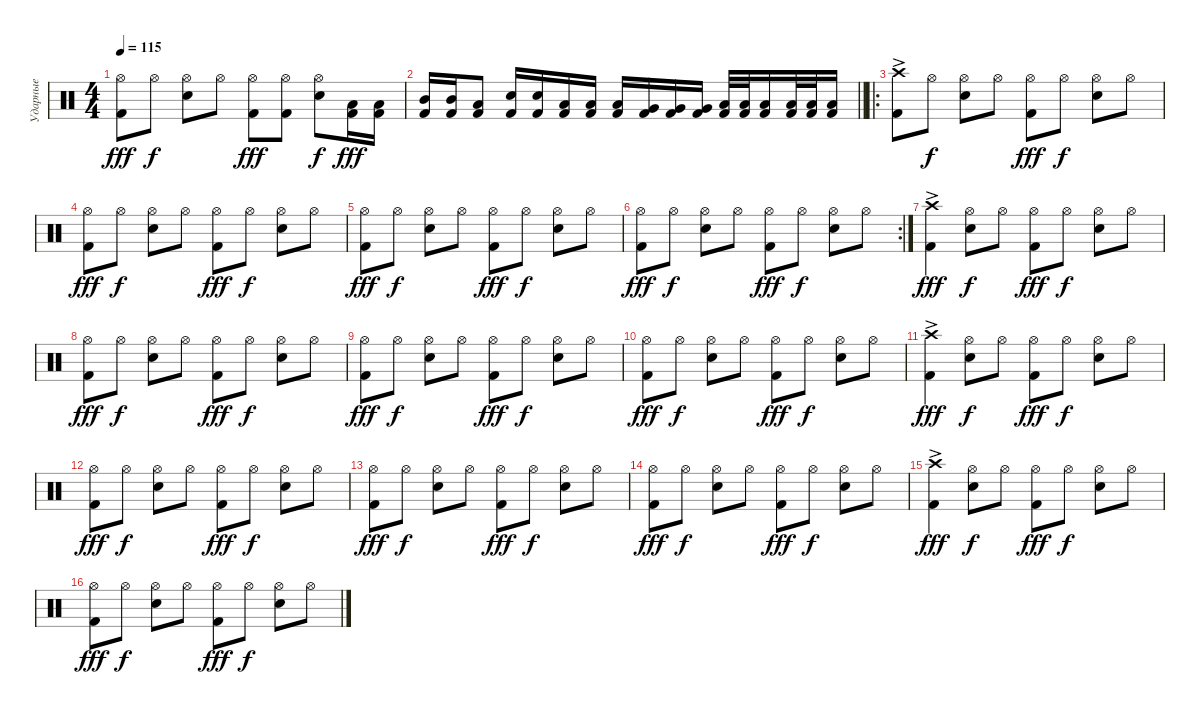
\track ("Ударные" "Ударные") {instrument percussion}
\staff {score}
\articulation defaults
\ts (4 4)
\tempo 115
\clef neutral
\ks c
("Kick (hit) 2" "Hi-Hat (open)").8{dy fff} "Hi-Hat (open)".8{dy f} ("Snare (hit) 2" "Hi-Hat (open)").8 "Hi-Hat (open)".8 ("Kick (hit) 2" "Hi-Hat (open)").8{dy fff} ("Kick (hit) 2" "Hi-Hat (open)").8 ("Snare (hit) 2" "Hi-Hat (open)").8{dy f} ("Kick (hit) 2" "Low Tom (hit)").16{dy fff} ("Kick (hit) 2" "Low Tom (hit)").16 |
\barLineRight lightlight
("Kick (hit) 2" "Mid Tom (hit)").16 ("Kick (hit) 2" "Mid Tom (hit)").16 ("Kick (hit) 2" "Low Tom (hit)").8 ("Kick (hit) 2" "Snare (hit) 2").16 ("Kick (hit) 2" "Snare (hit) 2").16 ("Kick (hit) 2" "Low Tom (hit)").16 ("Kick (hit) 2" "Low Tom (hit)").16 ("Kick (hit) 2" "Low Tom (hit)").16 ("Kick (hit) 2" "Very Low Tom (hit)").16 ("Kick (hit) 2" "Very Low Tom (hit)").16 ("Kick (hit) 2" "Very Low Tom (hit)").16 ("Kick (hit) 2" "Low Floor Tom (hit)").32 ("Kick (hit) 2" "Low Floor Tom (hit)").32 ("Kick (hit) 2" "Low Floor Tom (hit)").16 ("Kick (hit) 2" "Low Floor Tom (hit)").32 ("Kick (hit) 2" "Low Floor Tom (hit)").32 ("Kick (hit) 2" "Low Floor Tom (hit)").16 |
\ro
("Kick (hit) 2" "Crash high (hit)"{ac}).8 "Hi-Hat (open)".8{dy f} ("Snare (hit) 2" "Hi-Hat (open)").8 "Hi-Hat (open)".8 ("Kick (hit) 2" "Hi-Hat (open)").8{dy fff} "Hi-Hat (open)".8{dy f} ("Snare (hit) 2" "Hi-Hat (open)").8 "Hi-Hat (open)".8 |
("Kick (hit) 2" "Hi-Hat (open)").8{dy fff} "Hi-Hat (open)".8{dy f} ("Snare (hit) 2" "Hi-Hat (open)").8 "Hi-Hat (open)".8 ("Kick (hit) 2" "Hi-Hat (open)").8{dy fff} "Hi-Hat (open)".8{dy f} ("Snare (hit) 2" "Hi-Hat (open)").8 "Hi-Hat (open)".8 |
("Kick (hit) 2" "Hi-Hat (open)").8{dy fff} "Hi-Hat (open)".8{dy f} ("Snare (hit) 2" "Hi-Hat (open)").8 "Hi-Hat (open)".8 ("Kick (hit) 2" "Hi-Hat (open)").8{dy fff} "Hi-Hat (open)".8{dy f} ("Snare (hit) 2" "Hi-Hat (open)").8 "Hi-Hat (open)".8 |
\rc 2
("Kick (hit) 2" "Hi-Hat (open)").8{dy fff} "Hi-Hat (open)".8{dy f} ("Snare (hit) 2" "Hi-Hat (open)").8 "Hi-Hat (open)".8 ("Kick (hit) 2" "Hi-Hat (open)").8{dy fff} "Hi-Hat (open)".8{dy f} ("Snare (hit) 2" "Hi-Hat (open)").8 "Hi-Hat (open)".8 |
("Kick (hit) 2" "Crash high (hit)"{ac}).4{dy fff} ("Snare (hit) 2" "Hi-Hat (open)").8{dy f} "Hi-Hat (open)".8 ("Kick (hit) 2" "Hi-Hat (open)").8{dy fff} "Hi-Hat (open)".8{dy f} ("Snare (hit) 2" "Hi-Hat (open)").8 "Hi-Hat (open)".8 |
("Kick (hit) 2" "Hi-Hat (open)").8{dy fff} "Hi-Hat (open)".8{dy f} ("Snare (hit) 2" "Hi-Hat (open)").8 "Hi-Hat (open)".8 ("Kick (hit) 2" "Hi-Hat (open)").8{dy fff} "Hi-Hat (open)".8{dy f} ("Snare (hit) 2" "Hi-Hat (open)").8 "Hi-Hat (open)".8 |
("Kick (hit) 2" "Hi-Hat (open)").8{dy fff} "Hi-Hat (open)".8{dy f} ("Snare (hit) 2" "Hi-Hat (open)").8 "Hi-Hat (open)".8 ("Kick (hit) 2" "Hi-Hat (open)").8{dy fff} "Hi-Hat (open)".8{dy f} ("Snare (hit) 2" "Hi-Hat (open)").8 "Hi-Hat (open)".8 |
("Kick (hit) 2" "Hi-Hat (open)").8{dy fff} "Hi-Hat (open)".8{dy f} ("Snare (hit) 2" "Hi-Hat (open)").8 "Hi-Hat (open)".8 ("Kick (hit) 2" "Hi-Hat (open)").8{dy fff} "Hi-Hat (open)".8{dy f} ("Snare (hit) 2" "Hi-Hat (open)").8 "Hi-Hat (open)".8 |
("Kick (hit) 2" "Crash high (hit)"{ac}).4{dy fff} ("Snare (hit) 2" "Hi-Hat (open)").8{dy f} "Hi-Hat (open)".8 ("Kick (hit) 2" "Hi-Hat (open)").8{dy fff} "Hi-Hat (open)".8{dy f} ("Snare (hit) 2" "Hi-Hat (open)").8 "Hi-Hat (open)".8 |
("Kick (hit) 2" "Hi-Hat (open)").8{dy fff} "Hi-Hat (open)".8{dy f} ("Snare (hit) 2" "Hi-Hat (open)").8 "Hi-Hat (open)".8 ("Kick (hit) 2" "Hi-Hat (open)").8{dy fff} "Hi-Hat (open)".8{dy f} ("Snare (hit) 2" "Hi-Hat (open)").8 "Hi-Hat (open)".8 |
("Kick (hit) 2" "Hi-Hat (open)").8{dy fff} "Hi-Hat (open)".8{dy f} ("Snare (hit) 2" "Hi-Hat (open)").8 "Hi-Hat (open)".8 ("Kick (hit) 2" "Hi-Hat (open)").8{dy fff} "Hi-Hat (open)".8{dy f} ("Snare (hit) 2" "Hi-Hat (open)").8 "Hi-Hat (open)".8 |
("Kick (hit) 2" "Hi-Hat (open)").8{dy fff} "Hi-Hat (open)".8{dy f} ("Snare (hit) 2" "Hi-Hat (open)").8 "Hi-Hat (open)".8 ("Kick (hit) 2" "Hi-Hat (open)").8{dy fff} "Hi-Hat (open)".8{dy f} ("Snare (hit) 2" "Hi-Hat (open)").8 "Hi-Hat (open)".8 |
("Kick (hit) 2" "Crash high (hit)"{ac}).4{dy fff} ("Snare (hit) 2" "Hi-Hat (open)").8{dy f} "Hi-Hat (open)".8 ("Kick (hit) 2" "Hi-Hat (open)").8{dy fff} "Hi-Hat (open)".8{dy f} ("Snare (hit) 2" "Hi-Hat (open)").8 "Hi-Hat (open)".8 |
("Kick (hit) 2" "Hi-Hat (open)").8{dy fff} "Hi-Hat (open)".8{dy f} ("Snare (hit) 2" "Hi-Hat (open)").8 "Hi-Hat (open)".8 ("Kick (hit) 2" "Hi-Hat (open)").8{dy fff} "Hi-Hat (open)".8{dy f} ("Snare (hit) 2" "Hi-Hat (open)").8 "Hi-Hat (open)".8
